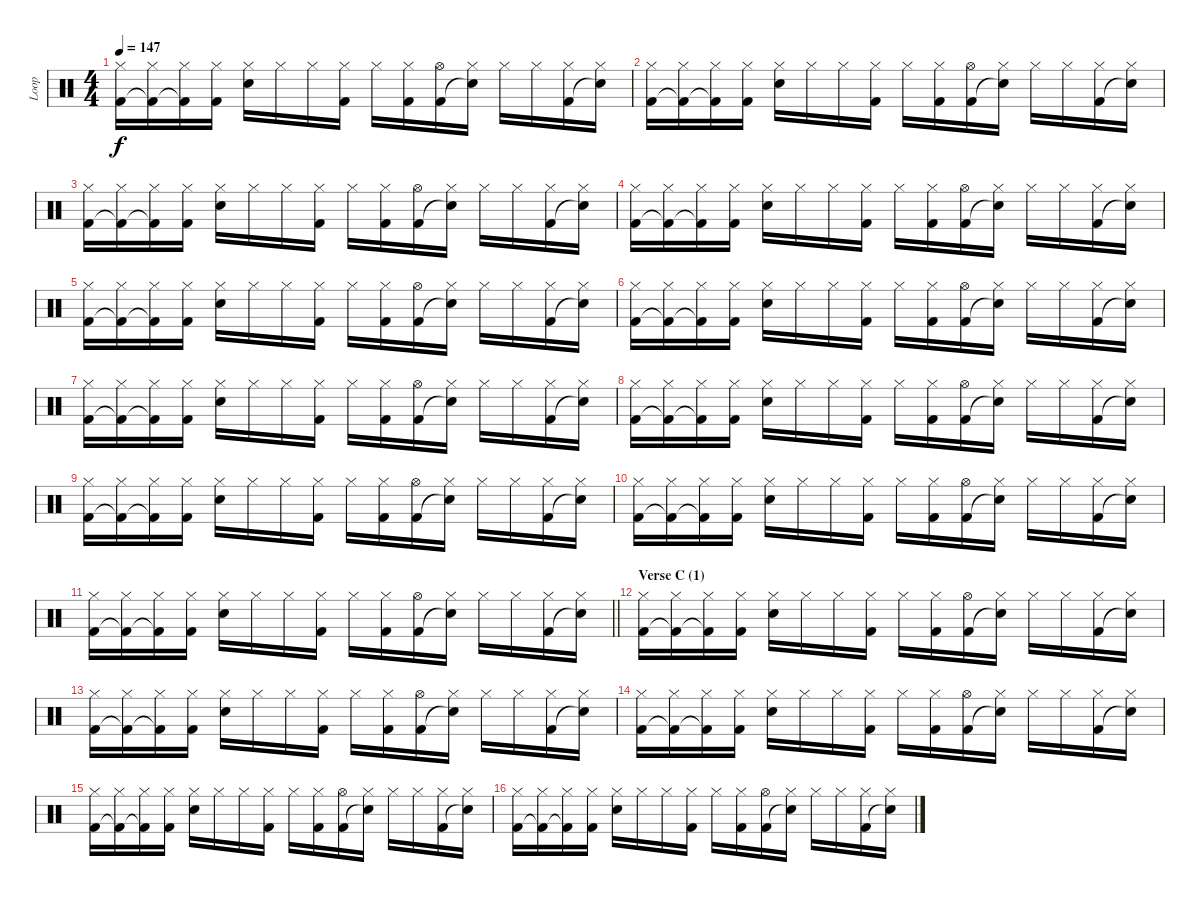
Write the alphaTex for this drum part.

\track ("Loop" "Loop") {instrument percussion}
\staff {score}
\articulation defaults
\ts (4 4)
\tempo 147
\clef neutral
\ks aminor
("Hi-Hat (closed)" "Kick (hit) 2").16{dy f} ("Hi-Hat (closed)" "Kick (hit) 2"{t}).16 ("Hi-Hat (closed)" "Kick (hit) 2"{t}).16 ("Hi-Hat (closed)" "Kick (hit) 2").16 ("Hi-Hat (closed)" "Electric Snare (hit)").16 "Hi-Hat (closed)".16 "Hi-Hat (closed)".16 ("Hi-Hat (closed)" "Kick (hit) 2").16 "Hi-Hat (closed)".16 ("Hi-Hat (closed)" "Kick (hit) 2").16 ("Hi-Hat (open)" "Kick (hit) 2").16 ("Hi-Hat (closed)" "Snare (hit)"{t}).16 "Hi-Hat (closed)".16 "Hi-Hat (closed)".16 ("Hi-Hat (closed)" "Kick (hit) 2").16 ("Hi-Hat (closed)" "Snare (hit)"{t}).16 |
("Hi-Hat (closed)" "Kick (hit) 2").16 ("Hi-Hat (closed)" "Kick (hit) 2"{t}).16 ("Hi-Hat (closed)" "Kick (hit) 2"{t}).16 ("Hi-Hat (closed)" "Kick (hit) 2").16 ("Hi-Hat (closed)" "Electric Snare (hit)").16 "Hi-Hat (closed)".16 "Hi-Hat (closed)".16 ("Hi-Hat (closed)" "Kick (hit) 2").16 "Hi-Hat (closed)".16 ("Hi-Hat (closed)" "Kick (hit) 2").16 ("Hi-Hat (open)" "Kick (hit) 2").16 ("Hi-Hat (closed)" "Snare (hit)"{t}).16 "Hi-Hat (closed)".16 "Hi-Hat (closed)".16 ("Hi-Hat (closed)" "Kick (hit) 2").16 ("Hi-Hat (closed)" "Snare (hit)"{t}).16 |
("Hi-Hat (closed)" "Kick (hit) 2").16 ("Hi-Hat (closed)" "Kick (hit) 2"{t}).16 ("Hi-Hat (closed)" "Kick (hit) 2"{t}).16 ("Hi-Hat (closed)" "Kick (hit) 2").16 ("Hi-Hat (closed)" "Electric Snare (hit)").16 "Hi-Hat (closed)".16 "Hi-Hat (closed)".16 ("Hi-Hat (closed)" "Kick (hit) 2").16 "Hi-Hat (closed)".16 ("Hi-Hat (closed)" "Kick (hit) 2").16 ("Hi-Hat (open)" "Kick (hit) 2").16 ("Hi-Hat (closed)" "Snare (hit)"{t}).16 "Hi-Hat (closed)".16 "Hi-Hat (closed)".16 ("Hi-Hat (closed)" "Kick (hit) 2").16 ("Hi-Hat (closed)" "Snare (hit)"{t}).16 |
("Hi-Hat (closed)" "Kick (hit) 2").16 ("Hi-Hat (closed)" "Kick (hit) 2"{t}).16 ("Hi-Hat (closed)" "Kick (hit) 2"{t}).16 ("Hi-Hat (closed)" "Kick (hit) 2").16 ("Hi-Hat (closed)" "Electric Snare (hit)").16 "Hi-Hat (closed)".16 "Hi-Hat (closed)".16 ("Hi-Hat (closed)" "Kick (hit) 2").16 "Hi-Hat (closed)".16 ("Hi-Hat (closed)" "Kick (hit) 2").16 ("Hi-Hat (open)" "Kick (hit) 2").16 ("Hi-Hat (closed)" "Snare (hit)"{t}).16 "Hi-Hat (closed)".16 "Hi-Hat (closed)".16 ("Hi-Hat (closed)" "Kick (hit) 2").16 ("Hi-Hat (closed)" "Snare (hit)"{t}).16 |
("Hi-Hat (closed)" "Kick (hit) 2").16 ("Hi-Hat (closed)" "Kick (hit) 2"{t}).16 ("Hi-Hat (closed)" "Kick (hit) 2"{t}).16 ("Hi-Hat (closed)" "Kick (hit) 2").16 ("Hi-Hat (closed)" "Electric Snare (hit)").16 "Hi-Hat (closed)".16 "Hi-Hat (closed)".16 ("Hi-Hat (closed)" "Kick (hit) 2").16 "Hi-Hat (closed)".16 ("Hi-Hat (closed)" "Kick (hit) 2").16 ("Hi-Hat (open)" "Kick (hit) 2").16 ("Hi-Hat (closed)" "Snare (hit)"{t}).16 "Hi-Hat (closed)".16 "Hi-Hat (closed)".16 ("Hi-Hat (closed)" "Kick (hit) 2").16 ("Hi-Hat (closed)" "Snare (hit)"{t}).16 |
("Hi-Hat (closed)" "Kick (hit) 2").16 ("Hi-Hat (closed)" "Kick (hit) 2"{t}).16 ("Hi-Hat (closed)" "Kick (hit) 2"{t}).16 ("Hi-Hat (closed)" "Kick (hit) 2").16 ("Hi-Hat (closed)" "Electric Snare (hit)").16 "Hi-Hat (closed)".16 "Hi-Hat (closed)".16 ("Hi-Hat (closed)" "Kick (hit) 2").16 "Hi-Hat (closed)".16 ("Hi-Hat (closed)" "Kick (hit) 2").16 ("Hi-Hat (open)" "Kick (hit) 2").16 ("Hi-Hat (closed)" "Snare (hit)"{t}).16 "Hi-Hat (closed)".16 "Hi-Hat (closed)".16 ("Hi-Hat (closed)" "Kick (hit) 2").16 ("Hi-Hat (closed)" "Snare (hit)"{t}).16 |
("Hi-Hat (closed)" "Kick (hit) 2").16 ("Hi-Hat (closed)" "Kick (hit) 2"{t}).16 ("Hi-Hat (closed)" "Kick (hit) 2"{t}).16 ("Hi-Hat (closed)" "Kick (hit) 2").16 ("Hi-Hat (closed)" "Electric Snare (hit)").16 "Hi-Hat (closed)".16 "Hi-Hat (closed)".16 ("Hi-Hat (closed)" "Kick (hit) 2").16 "Hi-Hat (closed)".16 ("Hi-Hat (closed)" "Kick (hit) 2").16 ("Hi-Hat (open)" "Kick (hit) 2").16 ("Hi-Hat (closed)" "Snare (hit)"{t}).16 "Hi-Hat (closed)".16 "Hi-Hat (closed)".16 ("Hi-Hat (closed)" "Kick (hit) 2").16 ("Hi-Hat (closed)" "Snare (hit)"{t}).16 |
("Hi-Hat (closed)" "Kick (hit) 2").16 ("Hi-Hat (closed)" "Kick (hit) 2"{t}).16 ("Hi-Hat (closed)" "Kick (hit) 2"{t}).16 ("Hi-Hat (closed)" "Kick (hit) 2").16 ("Hi-Hat (closed)" "Electric Snare (hit)").16 "Hi-Hat (closed)".16 "Hi-Hat (closed)".16 ("Hi-Hat (closed)" "Kick (hit) 2").16 "Hi-Hat (closed)".16 ("Hi-Hat (closed)" "Kick (hit) 2").16 ("Hi-Hat (open)" "Kick (hit) 2").16 ("Hi-Hat (closed)" "Snare (hit)"{t}).16 "Hi-Hat (closed)".16 "Hi-Hat (closed)".16 ("Hi-Hat (closed)" "Kick (hit) 2").16 ("Hi-Hat (closed)" "Snare (hit)"{t}).16 |
("Hi-Hat (closed)" "Kick (hit) 2").16 ("Hi-Hat (closed)" "Kick (hit) 2"{t}).16 ("Hi-Hat (closed)" "Kick (hit) 2"{t}).16 ("Hi-Hat (closed)" "Kick (hit) 2").16 ("Hi-Hat (closed)" "Electric Snare (hit)").16 "Hi-Hat (closed)".16 "Hi-Hat (closed)".16 ("Hi-Hat (closed)" "Kick (hit) 2").16 "Hi-Hat (closed)".16 ("Hi-Hat (closed)" "Kick (hit) 2").16 ("Hi-Hat (open)" "Kick (hit) 2").16 ("Hi-Hat (closed)" "Snare (hit)"{t}).16 "Hi-Hat (closed)".16 "Hi-Hat (closed)".16 ("Hi-Hat (closed)" "Kick (hit) 2").16 ("Hi-Hat (closed)" "Snare (hit)"{t}).16 |
("Hi-Hat (closed)" "Kick (hit) 2").16 ("Hi-Hat (closed)" "Kick (hit) 2"{t}).16 ("Hi-Hat (closed)" "Kick (hit) 2"{t}).16 ("Hi-Hat (closed)" "Kick (hit) 2").16 ("Hi-Hat (closed)" "Electric Snare (hit)").16 "Hi-Hat (closed)".16 "Hi-Hat (closed)".16 ("Hi-Hat (closed)" "Kick (hit) 2").16 "Hi-Hat (closed)".16 ("Hi-Hat (closed)" "Kick (hit) 2").16 ("Hi-Hat (open)" "Kick (hit) 2").16 ("Hi-Hat (closed)" "Snare (hit)"{t}).16 "Hi-Hat (closed)".16 "Hi-Hat (closed)".16 ("Hi-Hat (closed)" "Kick (hit) 2").16 ("Hi-Hat (closed)" "Snare (hit)"{t}).16 |
\barLineRight lightlight
("Hi-Hat (closed)" "Kick (hit) 2").16 ("Hi-Hat (closed)" "Kick (hit) 2"{t}).16 ("Hi-Hat (closed)" "Kick (hit) 2"{t}).16 ("Hi-Hat (closed)" "Kick (hit) 2").16 ("Hi-Hat (closed)" "Electric Snare (hit)").16 "Hi-Hat (closed)".16 "Hi-Hat (closed)".16 ("Hi-Hat (closed)" "Kick (hit) 2").16 "Hi-Hat (closed)".16 ("Hi-Hat (closed)" "Kick (hit) 2").16 ("Hi-Hat (open)" "Kick (hit) 2").16 ("Hi-Hat (closed)" "Snare (hit)"{t}).16 "Hi-Hat (closed)".16 "Hi-Hat (closed)".16 ("Hi-Hat (closed)" "Kick (hit) 2").16 ("Hi-Hat (closed)" "Snare (hit)"{t}).16 |
\section ("" "Verse C (1)")
("Hi-Hat (closed)" "Kick (hit) 2").16 ("Hi-Hat (closed)" "Kick (hit) 2"{t}).16 ("Hi-Hat (closed)" "Kick (hit) 2"{t}).16 ("Hi-Hat (closed)" "Kick (hit) 2").16 ("Hi-Hat (closed)" "Electric Snare (hit)").16 "Hi-Hat (closed)".16 "Hi-Hat (closed)".16 ("Hi-Hat (closed)" "Kick (hit) 2").16 "Hi-Hat (closed)".16 ("Hi-Hat (closed)" "Kick (hit) 2").16 ("Hi-Hat (open)" "Kick (hit) 2").16 ("Hi-Hat (closed)" "Snare (hit)"{t}).16 "Hi-Hat (closed)".16 "Hi-Hat (closed)".16 ("Hi-Hat (closed)" "Kick (hit) 2").16 ("Hi-Hat (closed)" "Snare (hit)"{t}).16 |
("Hi-Hat (closed)" "Kick (hit) 2").16 ("Hi-Hat (closed)" "Kick (hit) 2"{t}).16 ("Hi-Hat (closed)" "Kick (hit) 2"{t}).16 ("Hi-Hat (closed)" "Kick (hit) 2").16 ("Hi-Hat (closed)" "Electric Snare (hit)").16 "Hi-Hat (closed)".16 "Hi-Hat (closed)".16 ("Hi-Hat (closed)" "Kick (hit) 2").16 "Hi-Hat (closed)".16 ("Hi-Hat (closed)" "Kick (hit) 2").16 ("Hi-Hat (open)" "Kick (hit) 2").16 ("Hi-Hat (closed)" "Snare (hit)"{t}).16 "Hi-Hat (closed)".16 "Hi-Hat (closed)".16 ("Hi-Hat (closed)" "Kick (hit) 2").16 ("Hi-Hat (closed)" "Snare (hit)"{t}).16 |
("Hi-Hat (closed)" "Kick (hit) 2").16 ("Hi-Hat (closed)" "Kick (hit) 2"{t}).16 ("Hi-Hat (closed)" "Kick (hit) 2"{t}).16 ("Hi-Hat (closed)" "Kick (hit) 2").16 ("Hi-Hat (closed)" "Electric Snare (hit)").16 "Hi-Hat (closed)".16 "Hi-Hat (closed)".16 ("Hi-Hat (closed)" "Kick (hit) 2").16 "Hi-Hat (closed)".16 ("Hi-Hat (closed)" "Kick (hit) 2").16 ("Hi-Hat (open)" "Kick (hit) 2").16 ("Hi-Hat (closed)" "Snare (hit)"{t}).16 "Hi-Hat (closed)".16 "Hi-Hat (closed)".16 ("Hi-Hat (closed)" "Kick (hit) 2").16 ("Hi-Hat (closed)" "Snare (hit)"{t}).16 |
("Hi-Hat (closed)" "Kick (hit) 2").16 ("Hi-Hat (closed)" "Kick (hit) 2"{t}).16 ("Hi-Hat (closed)" "Kick (hit) 2"{t}).16 ("Hi-Hat (closed)" "Kick (hit) 2").16 ("Hi-Hat (closed)" "Electric Snare (hit)").16 "Hi-Hat (closed)".16 "Hi-Hat (closed)".16 ("Hi-Hat (closed)" "Kick (hit) 2").16 "Hi-Hat (closed)".16 ("Hi-Hat (closed)" "Kick (hit) 2").16 ("Hi-Hat (open)" "Kick (hit) 2").16 ("Hi-Hat (closed)" "Snare (hit)"{t}).16 "Hi-Hat (closed)".16 "Hi-Hat (closed)".16 ("Hi-Hat (closed)" "Kick (hit) 2").16 ("Hi-Hat (closed)" "Snare (hit)"{t}).16 |
("Hi-Hat (closed)" "Kick (hit) 2").16 ("Hi-Hat (closed)" "Kick (hit) 2"{t}).16 ("Hi-Hat (closed)" "Kick (hit) 2"{t}).16 ("Hi-Hat (closed)" "Kick (hit) 2").16 ("Hi-Hat (closed)" "Electric Snare (hit)").16 "Hi-Hat (closed)".16 "Hi-Hat (closed)".16 ("Hi-Hat (closed)" "Kick (hit) 2").16 "Hi-Hat (closed)".16 ("Hi-Hat (closed)" "Kick (hit) 2").16 ("Hi-Hat (open)" "Kick (hit) 2").16 ("Hi-Hat (closed)" "Snare (hit)"{t}).16 "Hi-Hat (closed)".16 "Hi-Hat (closed)".16 ("Hi-Hat (closed)" "Kick (hit) 2").16 ("Hi-Hat (closed)" "Snare (hit)"{t}).16
